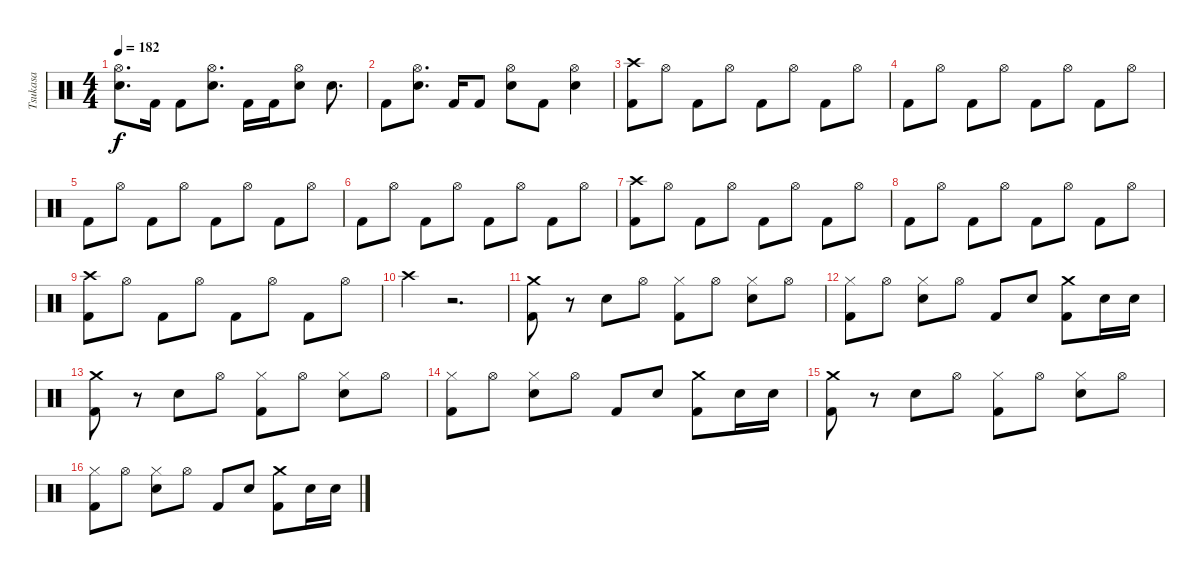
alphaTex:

\track ("Tsukasa" "Tsukasa") {instrument percussion}
\staff {score}
\articulation defaults
\ts (4 4)
\tempo 182
\clef neutral
\ks c
("Snare (hit) 2" "Hi-Hat (open)").8{d dy f} "Kick (hit) 2".16 "Kick (hit) 2".8 ("Snare (hit) 2" "Hi-Hat (open)").8{d} "Kick (hit) 2".16 "Kick (hit) 2".16 ("Snare (hit) 2" "Hi-Hat (open)").8 "Snare (hit) 2".8{d} |
"Kick (hit) 2".8 ("Snare (hit) 2" "Hi-Hat (open)").8{d} "Kick (hit) 2".16 "Kick (hit) 2".8 ("Snare (hit) 2" "Hi-Hat (open)").8 "Kick (hit) 2".8 ("Snare (hit) 2" "Hi-Hat (open)").4 |
("Kick (hit) 2" "Crash high (hit)").8 "Hi-Hat (open)".8 "Kick (hit) 2".8 "Hi-Hat (open)".8 "Kick (hit) 2".8 "Hi-Hat (open)".8 "Kick (hit) 2".8 "Hi-Hat (open)".8 |
"Kick (hit) 2".8 "Hi-Hat (open)".8 "Kick (hit) 2".8 "Hi-Hat (open)".8 "Kick (hit) 2".8 "Hi-Hat (open)".8 "Kick (hit) 2".8 "Hi-Hat (open)".8 |
"Kick (hit) 2".8 "Hi-Hat (open)".8 "Kick (hit) 2".8 "Hi-Hat (open)".8 "Kick (hit) 2".8 "Hi-Hat (open)".8 "Kick (hit) 2".8 "Hi-Hat (open)".8 |
"Kick (hit) 2".8 "Hi-Hat (open)".8 "Kick (hit) 2".8 "Hi-Hat (open)".8 "Kick (hit) 2".8 "Hi-Hat (open)".8 "Kick (hit) 2".8 "Hi-Hat (open)".8 |
("Kick (hit) 2" "Crash high (hit)").8 "Hi-Hat (open)".8 "Kick (hit) 2".8 "Hi-Hat (open)".8 "Kick (hit) 2".8 "Hi-Hat (open)".8 "Kick (hit) 2".8 "Hi-Hat (open)".8 |
"Kick (hit) 2".8 "Hi-Hat (open)".8 "Kick (hit) 2".8 "Hi-Hat (open)".8 "Kick (hit) 2".8 "Hi-Hat (open)".8 "Kick (hit) 2".8 "Hi-Hat (open)".8 |
("Kick (hit) 2" "Crash high (hit)").8 "Hi-Hat (open)".8 "Kick (hit) 2".8 "Hi-Hat (open)".8 "Kick (hit) 2".8 "Hi-Hat (open)".8 "Kick (hit) 2".8 "Hi-Hat (open)".8 |
"Crash high (hit)".4 r.2{d} |
("Kick (hit) 2" "Crash medium (hit)").8 r.8 "Electric Snare (hit)".8 "Hi-Hat (open)".8 ("Kick (hit) 2" "Hi-Hat (closed)").8 "Hi-Hat (open)".8 ("Electric Snare (hit)" "Hi-Hat (closed)").8 "Hi-Hat (open)".8 |
("Kick (hit) 2" "Hi-Hat (closed)").8 "Hi-Hat (open)".8 ("Electric Snare (hit)" "Hi-Hat (closed)").8 "Hi-Hat (open)".8 "Kick (hit) 2".8 "Electric Snare (hit)".8 ("Kick (hit) 2" "Crash medium (hit)").8 "Electric Snare (hit)".16 "Electric Snare (hit)".16 |
("Kick (hit) 2" "Crash medium (hit)").8 r.8 "Electric Snare (hit)".8 "Hi-Hat (open)".8 ("Kick (hit) 2" "Hi-Hat (closed)").8 "Hi-Hat (open)".8 ("Electric Snare (hit)" "Hi-Hat (closed)").8 "Hi-Hat (open)".8 |
("Kick (hit) 2" "Hi-Hat (closed)").8 "Hi-Hat (open)".8 ("Electric Snare (hit)" "Hi-Hat (closed)").8 "Hi-Hat (open)".8 "Kick (hit) 2".8 "Electric Snare (hit)".8 ("Kick (hit) 2" "Crash medium (hit)").8 "Electric Snare (hit)".16 "Electric Snare (hit)".16 |
("Kick (hit) 2" "Crash medium (hit)").8 r.8 "Electric Snare (hit)".8 "Hi-Hat (open)".8 ("Kick (hit) 2" "Hi-Hat (closed)").8 "Hi-Hat (open)".8 ("Electric Snare (hit)" "Hi-Hat (closed)").8 "Hi-Hat (open)".8 |
("Kick (hit) 2" "Hi-Hat (closed)").8 "Hi-Hat (open)".8 ("Electric Snare (hit)" "Hi-Hat (closed)").8 "Hi-Hat (open)".8 "Kick (hit) 2".8 "Electric Snare (hit)".8 ("Kick (hit) 2" "Crash medium (hit)").8 "Electric Snare (hit)".16 "Electric Snare (hit)".16
